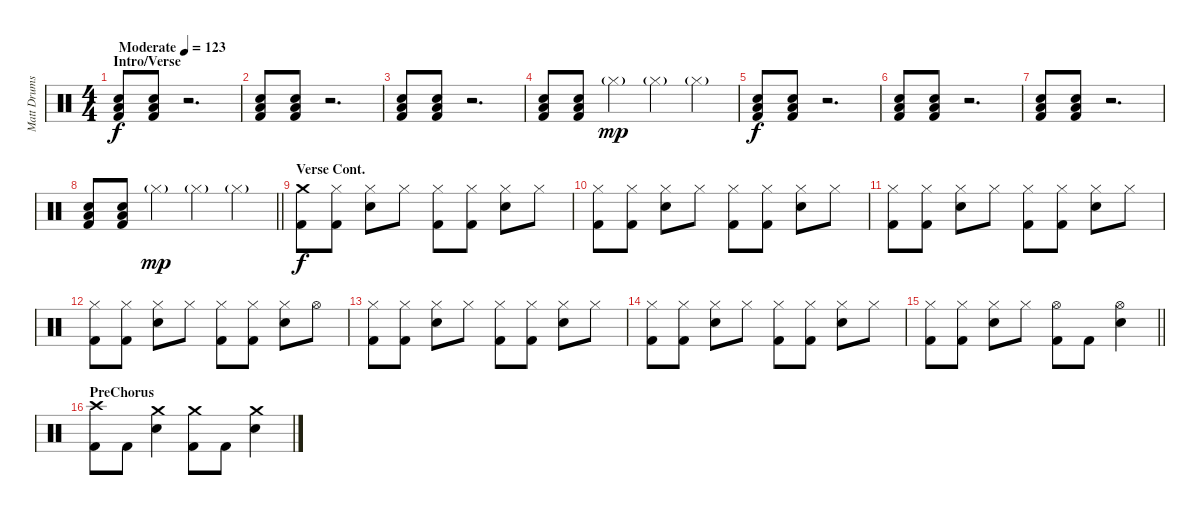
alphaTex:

\track ("Matt Drums" "Matt Drums") {instrument percussion}
\staff {score}
\articulation defaults
\ts (4 4)
\section ("" "Intro/Verse")
\tempo (123 "Moderate")
\clef neutral
\ks c
("Kick (hit) 2" "Low Floor Tom (hit)" "Snare (hit) 2").8{dy f} ("Kick (hit) 2" "Low Floor Tom (hit)" "Snare (hit) 2").8 r.2{d} |
("Kick (hit) 2" "Low Floor Tom (hit)" "Snare (hit) 2").8 ("Kick (hit) 2" "Low Floor Tom (hit)" "Snare (hit) 2").8 r.2{d} |
("Kick (hit) 2" "Low Floor Tom (hit)" "Snare (hit) 2").8 ("Kick (hit) 2" "Low Floor Tom (hit)" "Snare (hit) 2").8 r.2{d} |
("Kick (hit) 2" "Low Floor Tom (hit)" "Snare (hit) 2").8 ("Kick (hit) 2" "Low Floor Tom (hit)" "Snare (hit) 2").8 "Hi-Hat (closed)"{g}.4{dy mp} "Hi-Hat (closed)"{g}.4 "Hi-Hat (closed)"{g}.4 |
("Kick (hit) 2" "Low Floor Tom (hit)" "Snare (hit) 2").8{dy f} ("Kick (hit) 2" "Low Floor Tom (hit)" "Snare (hit) 2").8 r.2{d} |
("Kick (hit) 2" "Low Floor Tom (hit)" "Snare (hit) 2").8 ("Kick (hit) 2" "Low Floor Tom (hit)" "Snare (hit) 2").8 r.2{d} |
("Kick (hit) 2" "Low Floor Tom (hit)" "Snare (hit) 2").8 ("Kick (hit) 2" "Low Floor Tom (hit)" "Snare (hit) 2").8 r.2{d} |
\barLineRight lightlight
("Kick (hit) 2" "Low Floor Tom (hit)" "Snare (hit) 2").8 ("Kick (hit) 2" "Low Floor Tom (hit)" "Snare (hit) 2").8 "Hi-Hat (closed)"{g}.4{dy mp} "Hi-Hat (closed)"{g}.4 "Hi-Hat (closed)"{g}.4 |
\section ("" "Verse Cont.")
("Crash medium (hit)" "Kick (hit) 2").8{dy f} ("Hi-Hat (closed)" "Kick (hit) 2").8 ("Hi-Hat (closed)" "Snare (hit) 2").8 "Hi-Hat (closed)".8 ("Hi-Hat (closed)" "Kick (hit) 2").8 ("Hi-Hat (closed)" "Kick (hit) 2").8 ("Hi-Hat (closed)" "Snare (hit) 2").8 "Hi-Hat (closed)".8 |
("Hi-Hat (closed)" "Kick (hit) 2").8 ("Hi-Hat (closed)" "Kick (hit) 2").8 ("Hi-Hat (closed)" "Snare (hit) 2").8 "Hi-Hat (closed)".8 ("Hi-Hat (closed)" "Kick (hit) 2").8 ("Hi-Hat (closed)" "Kick (hit) 2").8 ("Hi-Hat (closed)" "Snare (hit) 2").8 "Hi-Hat (closed)".8 |
("Hi-Hat (closed)" "Kick (hit) 2").8 ("Hi-Hat (closed)" "Kick (hit) 2").8 ("Hi-Hat (closed)" "Snare (hit) 2").8 "Hi-Hat (closed)".8 ("Hi-Hat (closed)" "Kick (hit) 2").8 ("Hi-Hat (closed)" "Kick (hit) 2").8 ("Hi-Hat (closed)" "Snare (hit) 2").8 "Hi-Hat (closed)".8 |
("Hi-Hat (closed)" "Kick (hit) 2").8 ("Hi-Hat (closed)" "Kick (hit) 2").8 ("Hi-Hat (closed)" "Snare (hit) 2").8 "Hi-Hat (closed)".8 ("Hi-Hat (closed)" "Kick (hit) 2").8 ("Hi-Hat (closed)" "Kick (hit) 2").8 ("Hi-Hat (closed)" "Snare (hit) 2").8 "Hi-Hat (open)".8 |
("Hi-Hat (closed)" "Kick (hit) 2").8 ("Hi-Hat (closed)" "Kick (hit) 2").8 ("Hi-Hat (closed)" "Snare (hit) 2").8 "Hi-Hat (closed)".8 ("Hi-Hat (closed)" "Kick (hit) 2").8 ("Hi-Hat (closed)" "Kick (hit) 2").8 ("Hi-Hat (closed)" "Snare (hit) 2").8 "Hi-Hat (closed)".8 |
("Hi-Hat (closed)" "Kick (hit) 2").8 ("Hi-Hat (closed)" "Kick (hit) 2").8 ("Hi-Hat (closed)" "Snare (hit) 2").8 "Hi-Hat (closed)".8 ("Hi-Hat (closed)" "Kick (hit) 2").8 ("Hi-Hat (closed)" "Kick (hit) 2").8 ("Hi-Hat (closed)" "Snare (hit) 2").8 "Hi-Hat (closed)".8 |
\barLineRight lightlight
("Hi-Hat (closed)" "Kick (hit) 2").8 ("Hi-Hat (closed)" "Kick (hit) 2").8 ("Hi-Hat (closed)" "Snare (hit) 2").8 "Hi-Hat (closed)".8 ("Hi-Hat (open)" "Kick (hit) 2").8 "Kick (hit) 2".8 ("Hi-Hat (open)" "Snare (hit) 2").4 |
\section ("" "PreChorus")
("Crash high (hit)" "Kick (hit) 2").8 "Kick (hit) 2".8 ("Crash medium (hit)" "Snare (hit) 2").4 ("Crash medium (hit)" "Kick (hit) 2").8 "Kick (hit) 2".8 ("Crash medium (hit)" "Snare (hit) 2").4
